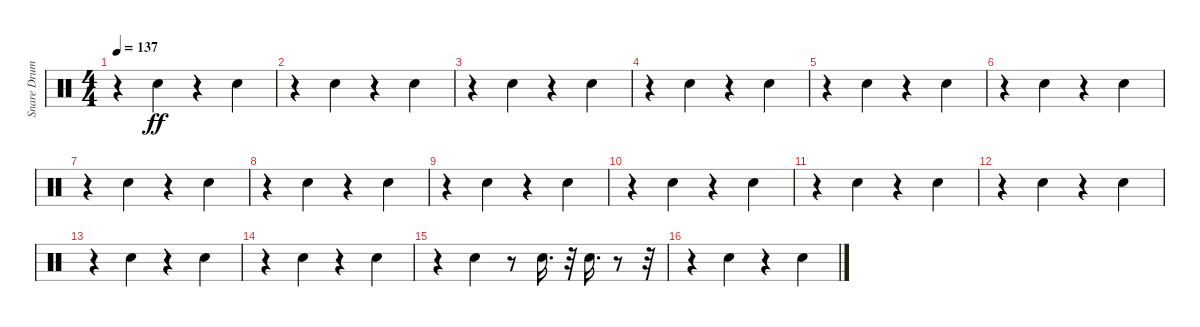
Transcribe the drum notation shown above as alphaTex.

\track ("Snare Drum" "Snare Drum") {instrument percussion}
\staff {score}
\articulation defaults
\ts (4 4)
\tempo 137
\clef neutral
\ks c
r.4{dy ff} "Snare (hit) 2".4 r.4 "Snare (hit) 2".4 |
r.4 "Snare (hit) 2".4 r.4 "Snare (hit) 2".4 |
r.4 "Snare (hit) 2".4 r.4 "Snare (hit) 2".4 |
r.4 "Snare (hit) 2".4 r.4 "Snare (hit) 2".4 |
r.4 "Snare (hit) 2".4 r.4 "Snare (hit) 2".4 |
r.4 "Snare (hit) 2".4 r.4 "Snare (hit) 2".4 |
r.4 "Snare (hit) 2".4 r.4 "Snare (hit) 2".4 |
r.4 "Snare (hit) 2".4 r.4 "Snare (hit) 2".4 |
r.4 "Snare (hit) 2".4 r.4 "Snare (hit) 2".4 |
r.4 "Snare (hit) 2".4 r.4 "Snare (hit) 2".4 |
r.4 "Snare (hit) 2".4 r.4 "Snare (hit) 2".4 |
r.4 "Snare (hit) 2".4 r.4 "Snare (hit) 2".4 |
r.4 "Snare (hit) 2".4 r.4 "Snare (hit) 2".4 |
r.4 "Snare (hit) 2".4 r.4 "Snare (hit) 2".4 |
r.4 "Snare (hit) 2".4 r.8 "Snare (hit) 2".16{d} r.32 "Snare (hit) 2".16{d} r.8 r.32 |
r.4 "Snare (hit) 2".4 r.4 "Snare (hit) 2".4
